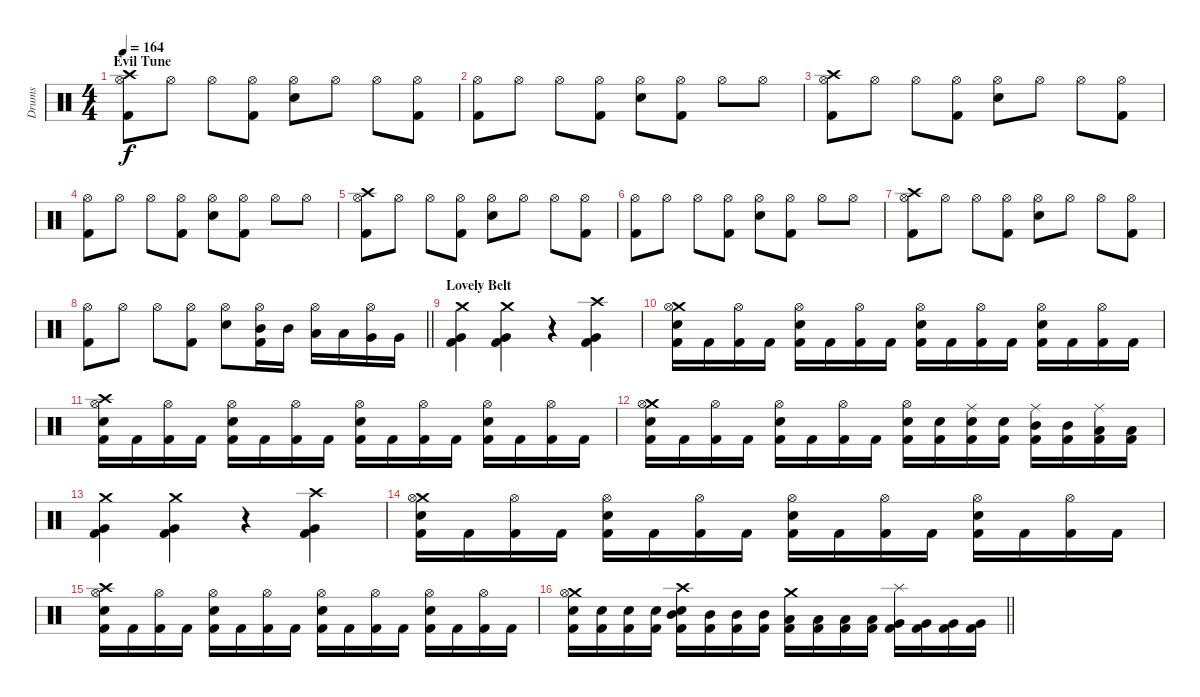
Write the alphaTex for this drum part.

\track ("Drums" "Drums") {instrument percussion}
\staff {score}
\articulation defaults
\ts (4 4)
\section ("" "Evil Tune")
\tempo 164
\clef neutral
\ks c
("Crash high (hit)" "Hi-Hat (open)" "Kick (hit) 2").8{dy f} "Hi-Hat (open)".8 "Hi-Hat (open)".8 ("Hi-Hat (open)" "Kick (hit) 2").8 ("Hi-Hat (open)" "Snare (hit) 2").8 "Hi-Hat (open)".8 "Hi-Hat (open)".8 ("Hi-Hat (open)" "Kick (hit) 2").8 |
("Hi-Hat (open)" "Kick (hit) 2").8 "Hi-Hat (open)".8 "Hi-Hat (open)".8 ("Hi-Hat (open)" "Kick (hit) 2").8 ("Hi-Hat (open)" "Snare (hit) 2").8 ("Hi-Hat (open)" "Kick (hit) 2").8 "Hi-Hat (open)".8 "Hi-Hat (open)".8 |
("Crash high (hit)" "Hi-Hat (open)" "Kick (hit) 2").8 "Hi-Hat (open)".8 "Hi-Hat (open)".8 ("Hi-Hat (open)" "Kick (hit) 2").8 ("Hi-Hat (open)" "Snare (hit) 2").8 "Hi-Hat (open)".8 "Hi-Hat (open)".8 ("Hi-Hat (open)" "Kick (hit) 2").8 |
("Hi-Hat (open)" "Kick (hit) 2").8 "Hi-Hat (open)".8 "Hi-Hat (open)".8 ("Hi-Hat (open)" "Kick (hit) 2").8 ("Hi-Hat (open)" "Snare (hit) 2").8 ("Hi-Hat (open)" "Kick (hit) 2").8 "Hi-Hat (open)".8 "Hi-Hat (open)".8 |
("Crash high (hit)" "Hi-Hat (open)" "Kick (hit) 2").8 "Hi-Hat (open)".8 "Hi-Hat (open)".8 ("Hi-Hat (open)" "Kick (hit) 2").8 ("Hi-Hat (open)" "Snare (hit) 2").8 "Hi-Hat (open)".8 "Hi-Hat (open)".8 ("Hi-Hat (open)" "Kick (hit) 2").8 |
("Hi-Hat (open)" "Kick (hit) 2").8 "Hi-Hat (open)".8 "Hi-Hat (open)".8 ("Hi-Hat (open)" "Kick (hit) 2").8 ("Hi-Hat (open)" "Snare (hit) 2").8 ("Hi-Hat (open)" "Kick (hit) 2").8 "Hi-Hat (open)".8 "Hi-Hat (open)".8 |
("Crash high (hit)" "Hi-Hat (open)" "Kick (hit) 2").8 "Hi-Hat (open)".8 "Hi-Hat (open)".8 ("Hi-Hat (open)" "Kick (hit) 2").8 ("Hi-Hat (open)" "Snare (hit) 2").8 "Hi-Hat (open)".8 "Hi-Hat (open)".8 ("Hi-Hat (open)" "Kick (hit) 2").8 |
\barLineRight lightlight
("Hi-Hat (open)" "Kick (hit) 2").8 "Hi-Hat (open)".8 "Hi-Hat (open)".8 ("Hi-Hat (open)" "Kick (hit) 2").8 ("Hi-Hat (open)" "Snare (hit) 2").8 ("Hi-Hat (open)" "Mid Tom (hit)" "Kick (hit) 2").16 "Mid Tom (hit)".16 ("Hi-Hat (open)" "Low Tom (hit)").16 "Low Tom (hit)".16 ("Hi-Hat (open)" "Very Low Tom (hit)").16 "Very Low Tom (hit)".16 |
\section ("" "Lovely Belt")
("Crash medium (hit)" "Very Low Tom (hit)" "Kick (hit) 2").4 ("Crash medium (hit)" "Very Low Tom (hit)" "Kick (hit) 2").4 r.4 ("Crash high (hit)" "Very Low Tom (hit)" "Kick (hit) 2").4 |
("Crash medium (hit)" "Hi-Hat (open)" "Snare (hit) 2" "Kick (hit) 2").16 "Kick (hit) 2".16 ("Hi-Hat (open)" "Kick (hit) 2").16 "Kick (hit) 2".16 ("Hi-Hat (open)" "Snare (hit) 2" "Kick (hit) 2").16 "Kick (hit) 2".16 ("Hi-Hat (open)" "Kick (hit) 2").16 "Kick (hit) 2".16 ("Hi-Hat (open)" "Snare (hit) 2" "Kick (hit) 2").16 "Kick (hit) 2".16 ("Hi-Hat (open)" "Kick (hit) 2").16 "Kick (hit) 2".16 ("Hi-Hat (open)" "Snare (hit) 2" "Kick (hit) 2").16 "Kick (hit) 2".16 ("Hi-Hat (open)" "Kick (hit) 2").16 "Kick (hit) 2".16 |
("Crash high (hit)" "Hi-Hat (open)" "Snare (hit) 2" "Kick (hit) 2").16 "Kick (hit) 2".16 ("Hi-Hat (open)" "Kick (hit) 2").16 "Kick (hit) 2".16 ("Hi-Hat (open)" "Snare (hit) 2" "Kick (hit) 2").16 "Kick (hit) 2".16 ("Hi-Hat (open)" "Kick (hit) 2").16 "Kick (hit) 2".16 ("Hi-Hat (open)" "Snare (hit) 2" "Kick (hit) 2").16 "Kick (hit) 2".16 ("Hi-Hat (open)" "Kick (hit) 2").16 "Kick (hit) 2".16 ("Hi-Hat (open)" "Snare (hit) 2" "Kick (hit) 2").16 "Kick (hit) 2".16 ("Hi-Hat (open)" "Kick (hit) 2").16 "Kick (hit) 2".16 |
("Crash medium (hit)" "Hi-Hat (open)" "Snare (hit) 2" "Kick (hit) 2").16 "Kick (hit) 2".16 ("Hi-Hat (open)" "Kick (hit) 2").16 "Kick (hit) 2".16 ("Hi-Hat (open)" "Snare (hit) 2" "Kick (hit) 2").16 "Kick (hit) 2".16 ("Hi-Hat (open)" "Kick (hit) 2").16 "Kick (hit) 2".16 ("Hi-Hat (open)" "Snare (hit) 2" "Kick (hit) 2").16 ("Snare (hit) 2" "Kick (hit) 2").16 ("Ride (middle)" "Snare (hit) 2" "Kick (hit) 2").16 ("Snare (hit) 2" "Kick (hit) 2").16 ("Ride (middle)" "Mid Tom (hit)" "Kick (hit) 2").16 ("Mid Tom (hit)" "Kick (hit) 2").16 ("Ride (middle)" "Low Tom (hit)" "Kick (hit) 2").16 ("Low Tom (hit)" "Kick (hit) 2").16 |
("Crash medium (hit)" "Very Low Tom (hit)" "Kick (hit) 2").4 ("Crash medium (hit)" "Very Low Tom (hit)" "Kick (hit) 2").4 r.4 ("Crash high (hit)" "Very Low Tom (hit)" "Kick (hit) 2").4 |
("Crash medium (hit)" "Hi-Hat (open)" "Snare (hit) 2" "Kick (hit) 2").16 "Kick (hit) 2".16 ("Hi-Hat (open)" "Kick (hit) 2").16 "Kick (hit) 2".16 ("Hi-Hat (open)" "Snare (hit) 2" "Kick (hit) 2").16 "Kick (hit) 2".16 ("Hi-Hat (open)" "Kick (hit) 2").16 "Kick (hit) 2".16 ("Hi-Hat (open)" "Snare (hit) 2" "Kick (hit) 2").16 "Kick (hit) 2".16 ("Hi-Hat (open)" "Kick (hit) 2").16 "Kick (hit) 2".16 ("Hi-Hat (open)" "Snare (hit) 2" "Kick (hit) 2").16 "Kick (hit) 2".16 ("Hi-Hat (open)" "Kick (hit) 2").16 "Kick (hit) 2".16 |
("Crash high (hit)" "Hi-Hat (open)" "Snare (hit) 2" "Kick (hit) 2").16 "Kick (hit) 2".16 ("Hi-Hat (open)" "Kick (hit) 2").16 "Kick (hit) 2".16 ("Hi-Hat (open)" "Snare (hit) 2" "Kick (hit) 2").16 "Kick (hit) 2".16 ("Hi-Hat (open)" "Kick (hit) 2").16 "Kick (hit) 2".16 ("Hi-Hat (open)" "Snare (hit) 2" "Kick (hit) 2").16 "Kick (hit) 2".16 ("Hi-Hat (open)" "Kick (hit) 2").16 "Kick (hit) 2".16 ("Hi-Hat (open)" "Snare (hit) 2" "Kick (hit) 2").16 "Kick (hit) 2".16 ("Hi-Hat (open)" "Kick (hit) 2").16 "Kick (hit) 2".16 |
\barLineRight lightlight
("Crash medium (hit)" "Hi-Hat (open)" "Snare (hit) 2" "Kick (hit) 2").16 ("Snare (hit) 2" "Kick (hit) 2").16 ("Snare (hit) 2" "Kick (hit) 2").16 ("Snare (hit) 2" "Kick (hit) 2").16 ("Crash high (hit)" "Mid Tom (hit)" "Snare (hit) 2" "Kick (hit) 2").16 ("Mid Tom (hit)" "Kick (hit) 2").16 ("Mid Tom (hit)" "Kick (hit) 2").16 ("Mid Tom (hit)" "Kick (hit) 2").16 ("Crash medium (hit)" "Low Tom (hit)" "Kick (hit) 2").16 ("Low Tom (hit)" "Kick (hit) 2").16 ("Low Tom (hit)" "Kick (hit) 2").16 ("Low Tom (hit)" "Kick (hit) 2").16 ("Splash (hit)" "Very Low Tom (hit)" "Kick (hit) 2").16 ("Very Low Tom (hit)" "Kick (hit) 2").16 ("Very Low Tom (hit)" "Kick (hit) 2").16 ("Very Low Tom (hit)" "Kick (hit) 2").16
